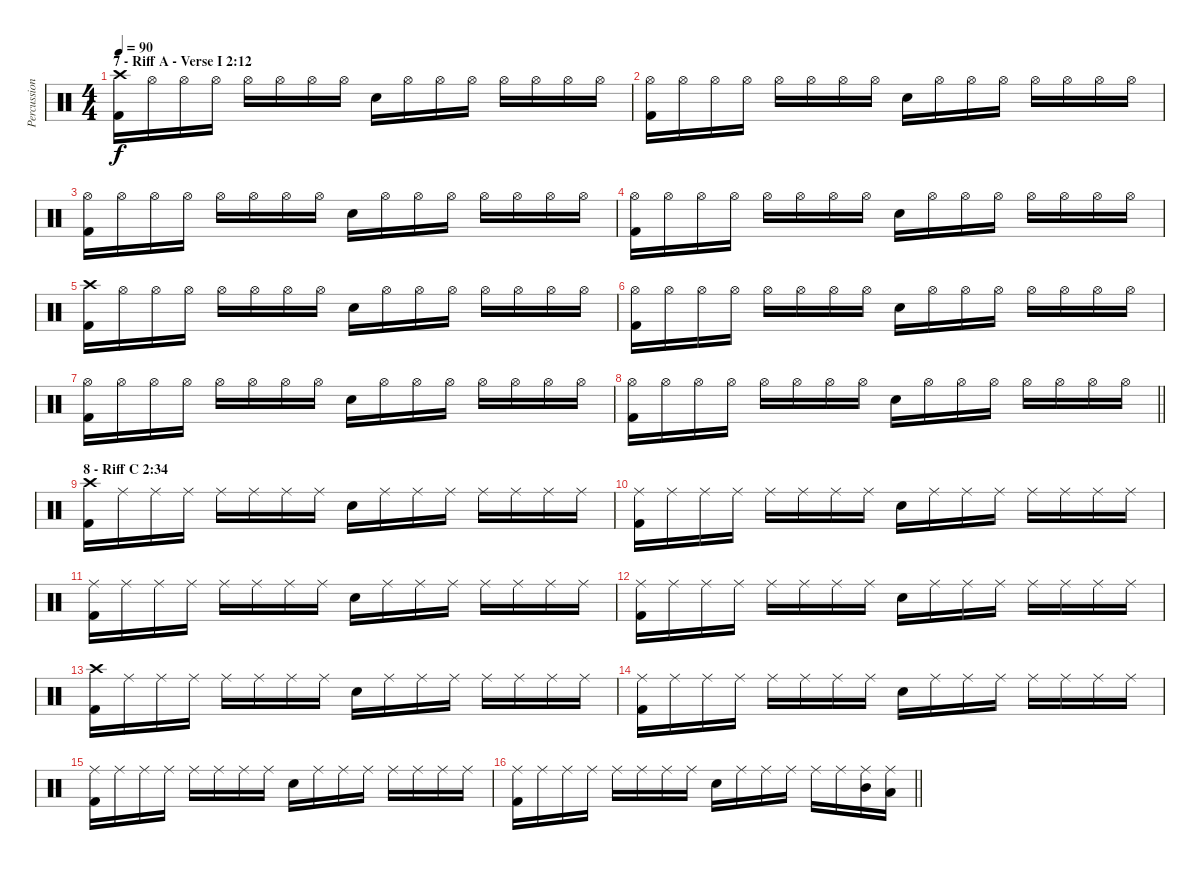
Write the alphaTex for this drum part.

\track ("Percussion" "Percussion") {instrument percussion}
\staff {score}
\articulation defaults
\ts (4 4)
\section ("" "7 - Riff A - Verse I 2:12")
\tempo 90
\clef neutral
\ks c
("Crash high (hit)" "Kick (hit) 2").16{dy f} "Hi-Hat (open)".16 "Hi-Hat (open)".16 "Hi-Hat (open)".16 "Hi-Hat (open)".16 "Hi-Hat (open)".16 "Hi-Hat (open)".16 "Hi-Hat (open)".16 "Snare (hit) 2".16 "Hi-Hat (open)".16 "Hi-Hat (open)".16 "Hi-Hat (open)".16 "Hi-Hat (open)".16 "Hi-Hat (open)".16 "Hi-Hat (open)".16 "Hi-Hat (open)".16 |
("Hi-Hat (open)" "Kick (hit) 2").16 "Hi-Hat (open)".16 "Hi-Hat (open)".16 "Hi-Hat (open)".16 "Hi-Hat (open)".16 "Hi-Hat (open)".16 "Hi-Hat (open)".16 "Hi-Hat (open)".16 "Snare (hit) 2".16 "Hi-Hat (open)".16 "Hi-Hat (open)".16 "Hi-Hat (open)".16 "Hi-Hat (open)".16 "Hi-Hat (open)".16 "Hi-Hat (open)".16 "Hi-Hat (open)".16 |
("Hi-Hat (open)" "Kick (hit) 2").16 "Hi-Hat (open)".16 "Hi-Hat (open)".16 "Hi-Hat (open)".16 "Hi-Hat (open)".16 "Hi-Hat (open)".16 "Hi-Hat (open)".16 "Hi-Hat (open)".16 "Snare (hit) 2".16 "Hi-Hat (open)".16 "Hi-Hat (open)".16 "Hi-Hat (open)".16 "Hi-Hat (open)".16 "Hi-Hat (open)".16 "Hi-Hat (open)".16 "Hi-Hat (open)".16 |
("Hi-Hat (open)" "Kick (hit) 2").16 "Hi-Hat (open)".16 "Hi-Hat (open)".16 "Hi-Hat (open)".16 "Hi-Hat (open)".16 "Hi-Hat (open)".16 "Hi-Hat (open)".16 "Hi-Hat (open)".16 "Snare (hit) 2".16 "Hi-Hat (open)".16 "Hi-Hat (open)".16 "Hi-Hat (open)".16 "Hi-Hat (open)".16 "Hi-Hat (open)".16 "Hi-Hat (open)".16 "Hi-Hat (open)".16 |
("Crash high (hit)" "Kick (hit) 2").16 "Hi-Hat (open)".16 "Hi-Hat (open)".16 "Hi-Hat (open)".16 "Hi-Hat (open)".16 "Hi-Hat (open)".16 "Hi-Hat (open)".16 "Hi-Hat (open)".16 "Snare (hit) 2".16 "Hi-Hat (open)".16 "Hi-Hat (open)".16 "Hi-Hat (open)".16 "Hi-Hat (open)".16 "Hi-Hat (open)".16 "Hi-Hat (open)".16 "Hi-Hat (open)".16 |
("Hi-Hat (open)" "Kick (hit) 2").16 "Hi-Hat (open)".16 "Hi-Hat (open)".16 "Hi-Hat (open)".16 "Hi-Hat (open)".16 "Hi-Hat (open)".16 "Hi-Hat (open)".16 "Hi-Hat (open)".16 "Snare (hit) 2".16 "Hi-Hat (open)".16 "Hi-Hat (open)".16 "Hi-Hat (open)".16 "Hi-Hat (open)".16 "Hi-Hat (open)".16 "Hi-Hat (open)".16 "Hi-Hat (open)".16 |
("Hi-Hat (open)" "Kick (hit) 2").16 "Hi-Hat (open)".16 "Hi-Hat (open)".16 "Hi-Hat (open)".16 "Hi-Hat (open)".16 "Hi-Hat (open)".16 "Hi-Hat (open)".16 "Hi-Hat (open)".16 "Snare (hit) 2".16 "Hi-Hat (open)".16 "Hi-Hat (open)".16 "Hi-Hat (open)".16 "Hi-Hat (open)".16 "Hi-Hat (open)".16 "Hi-Hat (open)".16 "Hi-Hat (open)".16 |
\barLineRight lightlight
("Hi-Hat (open)" "Kick (hit) 2").16 "Hi-Hat (open)".16 "Hi-Hat (open)".16 "Hi-Hat (open)".16 "Hi-Hat (open)".16 "Hi-Hat (open)".16 "Hi-Hat (open)".16 "Hi-Hat (open)".16 "Snare (hit) 2".16 "Hi-Hat (open)".16 "Hi-Hat (open)".16 "Hi-Hat (open)".16 "Hi-Hat (open)".16 "Hi-Hat (open)".16 "Hi-Hat (open)".16 "Hi-Hat (open)".16 |
\section ("" "8 - Riff C 2:34")
("Crash high (hit)" "Kick (hit) 2").16 "Ride (middle)".16 "Ride (middle)".16 "Ride (middle)".16 "Ride (middle)".16 "Ride (middle)".16 "Ride (middle)".16 "Ride (middle)".16 "Snare (hit) 2".16 "Ride (middle)".16 "Ride (middle)".16 "Ride (middle)".16 "Ride (middle)".16 "Ride (middle)".16 "Ride (middle)".16 "Ride (middle)".16 |
("Ride (middle)" "Kick (hit) 2").16 "Ride (middle)".16 "Ride (middle)".16 "Ride (middle)".16 "Ride (middle)".16 "Ride (middle)".16 "Ride (middle)".16 "Ride (middle)".16 "Snare (hit) 2".16 "Ride (middle)".16 "Ride (middle)".16 "Ride (middle)".16 "Ride (middle)".16 "Ride (middle)".16 "Ride (middle)".16 "Ride (middle)".16 |
("Ride (middle)" "Kick (hit) 2").16 "Ride (middle)".16 "Ride (middle)".16 "Ride (middle)".16 "Ride (middle)".16 "Ride (middle)".16 "Ride (middle)".16 "Ride (middle)".16 "Snare (hit) 2".16 "Ride (middle)".16 "Ride (middle)".16 "Ride (middle)".16 "Ride (middle)".16 "Ride (middle)".16 "Ride (middle)".16 "Ride (middle)".16 |
("Ride (middle)" "Kick (hit) 2").16 "Ride (middle)".16 "Ride (middle)".16 "Ride (middle)".16 "Ride (middle)".16 "Ride (middle)".16 "Ride (middle)".16 "Ride (middle)".16 "Snare (hit) 2".16 "Ride (middle)".16 "Ride (middle)".16 "Ride (middle)".16 "Ride (middle)".16 "Ride (middle)".16 "Ride (middle)".16 "Ride (middle)".16 |
("Crash high (hit)" "Kick (hit) 2").16 "Ride (middle)".16 "Ride (middle)".16 "Ride (middle)".16 "Ride (middle)".16 "Ride (middle)".16 "Ride (middle)".16 "Ride (middle)".16 "Snare (hit) 2".16 "Ride (middle)".16 "Ride (middle)".16 "Ride (middle)".16 "Ride (middle)".16 "Ride (middle)".16 "Ride (middle)".16 "Ride (middle)".16 |
("Ride (middle)" "Kick (hit) 2").16 "Ride (middle)".16 "Ride (middle)".16 "Ride (middle)".16 "Ride (middle)".16 "Ride (middle)".16 "Ride (middle)".16 "Ride (middle)".16 "Snare (hit) 2".16 "Ride (middle)".16 "Ride (middle)".16 "Ride (middle)".16 "Ride (middle)".16 "Ride (middle)".16 "Ride (middle)".16 "Ride (middle)".16 |
("Ride (middle)" "Kick (hit) 2").16 "Ride (middle)".16 "Ride (middle)".16 "Ride (middle)".16 "Ride (middle)".16 "Ride (middle)".16 "Ride (middle)".16 "Ride (middle)".16 "Snare (hit) 2".16 "Ride (middle)".16 "Ride (middle)".16 "Ride (middle)".16 "Ride (middle)".16 "Ride (middle)".16 "Ride (middle)".16 "Ride (middle)".16 |
\barLineRight lightlight
("Ride (middle)" "Kick (hit) 2").16 "Ride (middle)".16 "Ride (middle)".16 "Ride (middle)".16 "Ride (middle)".16 "Ride (middle)".16 "Ride (middle)".16 "Ride (middle)".16 "Snare (hit) 2".16 "Ride (middle)".16 "Ride (middle)".16 "Ride (middle)".16 "Ride (middle)".16 "Ride (middle)".16 ("Ride (middle)" "Mid Tom (hit)").16 ("Ride (middle)" "Low Tom (hit)").16
